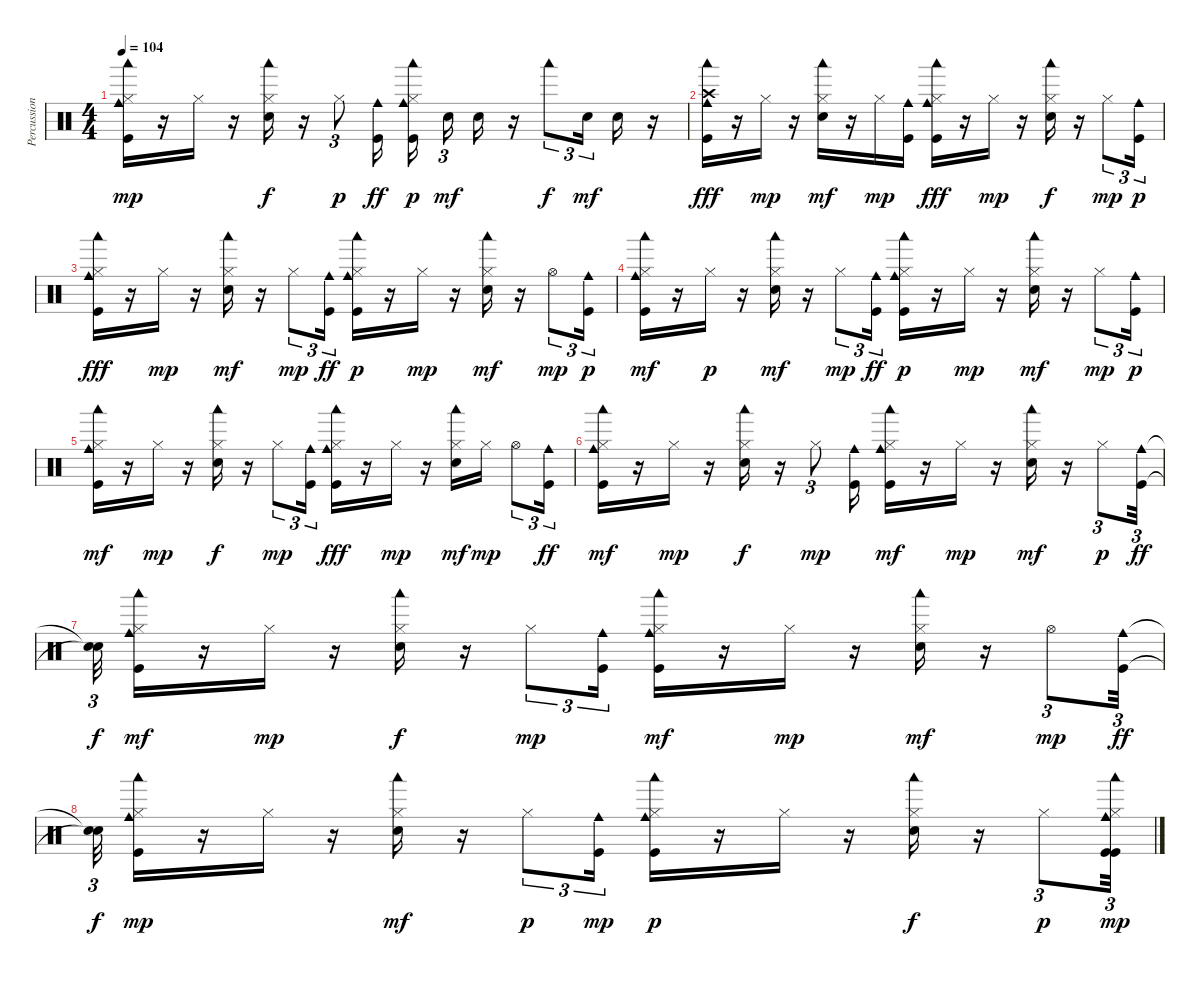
\track ("Percussions (drums + hihats)" "Percussion") {instrument percussion}
\staff {score}
\articulation defaults
\ts (4 4)
\tempo 104
\clef neutral
\ks c
("Hi-Hat (closed)" "Kick (hit)" "Woodblock low (hit)" "Cowbell medium (hit)").16{dy mp} r.16 "Hi-Hat (closed)".16 r.16 ("Woodblock low (hit)" "Electric Snare (hit)" "Hi-Hat (closed)").16{dy f} r.16 "Hi-Hat (closed)".8{tu (3 2) dy p} ("Cowbell medium (hit)" "Kick (hit)").16{dy ff} ("Kick (hit)" "Woodblock low (hit)" "Cowbell medium (hit)" "Hi-Hat (closed)").16{dy p} "Electric Snare (hit)".16{tu (3 2) dy mf} "Electric Snare (hit)".16 r.16 "Woodblock low (hit)".8{tu (3 2) dy f} "Electric Snare (hit)".16{tu (3 2) dy mf} "Electric Snare (hit)".16 r.16 |
("Cowbell medium (hit)" "Crash high (hit)" "Kick (hit)" "Woodblock low (hit)").16{dy fff} r.16 "Hi-Hat (closed)".16{dy mp} r.16 ("Woodblock low (hit)" "Hi-Hat (closed)" "Electric Snare (hit)").16{dy mf} r.16 "Hi-Hat (closed)".16{dy mp} ("Kick (hit)" "Cowbell medium (hit)").16 ("Cowbell medium (hit)" "Woodblock low (hit)" "Hi-Hat (closed)" "Kick (hit)").16{dy fff} r.16 "Hi-Hat (closed)".16{dy mp} r.16 ("Woodblock low (hit)" "Electric Snare (hit)" "Hi-Hat (closed)").16{dy f} r.16 "Hi-Hat (closed)".8{tu (3 2) dy mp} ("Kick (hit)" "Cowbell medium (hit)").16{tu (3 2) dy p} |
("Cowbell medium (hit)" "Woodblock low (hit)" "Hi-Hat (closed)" "Kick (hit)").16{dy fff} r.16 "Hi-Hat (closed)".16{dy mp} r.16 ("Hi-Hat (closed)" "Woodblock low (hit)" "Electric Snare (hit)").16{dy mf} r.16 "Hi-Hat (closed)".8{tu (3 2) dy mp} ("Cowbell medium (hit)" "Kick (hit)").16{tu (3 2) dy ff} ("Woodblock low (hit)" "Kick (hit)" "Hi-Hat (closed)" "Cowbell medium (hit)").16{dy p} r.16 "Hi-Hat (closed)".16{dy mp} r.16 ("Electric Snare (hit)" "Hi-Hat (closed)" "Woodblock low (hit)").16{dy mf} r.16 "Hi-Hat (open)".8{tu (3 2) dy mp} ("Kick (hit)" "Cowbell medium (hit)").16{tu (3 2) dy p} |
("Woodblock low (hit)" "Cowbell medium (hit)" "Kick (hit)" "Hi-Hat (closed)").16{dy mf} r.16 "Hi-Hat (closed)".16{dy p} r.16 ("Electric Snare (hit)" "Hi-Hat (closed)" "Woodblock low (hit)").16{dy mf} r.16 "Hi-Hat (closed)".8{tu (3 2) dy mp} ("Cowbell medium (hit)" "Kick (hit)").16{tu (3 2) dy ff} ("Hi-Hat (closed)" "Kick (hit)" "Cowbell medium (hit)" "Woodblock low (hit)").16{dy p} r.16 "Hi-Hat (closed)".16{dy mp} r.16 ("Hi-Hat (closed)" "Woodblock low (hit)" "Electric Snare (hit)").16{dy mf} r.16 "Hi-Hat (closed)".8{tu (3 2) dy mp} ("Kick (hit)" "Cowbell medium (hit)").16{tu (3 2) dy p} |
("Woodblock low (hit)" "Kick (hit)" "Cowbell medium (hit)" "Hi-Hat (closed)").16{dy mf} r.16 "Hi-Hat (closed)".16{dy mp} r.16 ("Woodblock low (hit)" "Electric Snare (hit)" "Hi-Hat (closed)").16{dy f} r.16 "Hi-Hat (closed)".8{tu (3 2) dy mp} ("Kick (hit)" "Cowbell medium (hit)").16{tu (3 2)} ("Cowbell medium (hit)" "Woodblock low (hit)" "Hi-Hat (closed)" "Kick (hit)").16{dy fff} r.16 "Hi-Hat (closed)".16{dy mp} r.16 ("Hi-Hat (closed)" "Woodblock low (hit)" "Electric Snare (hit)").16{dy mf} "Hi-Hat (closed)".16{dy mp} "Hi-Hat (open)".8{tu (3 2)} ("Cowbell medium (hit)" "Kick (hit)").16{tu (3 2) dy ff} |
("Cowbell medium (hit)" "Kick (hit)" "Hi-Hat (closed)" "Woodblock low (hit)").16{dy mf} r.16 "Hi-Hat (closed)".16{dy mp} r.16 ("Hi-Hat (closed)" "Electric Snare (hit)" "Woodblock low (hit)").16{dy f} r.16 "Hi-Hat (closed)".8{tu (3 2) dy mp} ("Kick (hit)" "Cowbell medium (hit)").16 ("Cowbell medium (hit)" "Kick (hit)" "Hi-Hat (closed)" "Woodblock low (hit)").16{dy mf} r.16 "Hi-Hat (closed)".16{dy mp} r.16 ("Electric Snare (hit)" "Woodblock low (hit)" "Hi-Hat (closed)").16{dy mf} r.16 "Hi-Hat (closed)".8{tu (3 2) dy p} ("Cowbell medium (hit)" "Kick (hit)").32{tu (3 2) dy ff} |
("Snare (hit)"{t} "Snare (hit)"{t}).32{tu (3 2) dy f} ("Cowbell medium (hit)" "Kick (hit)" "Hi-Hat (closed)" "Woodblock low (hit)").16{dy mf} r.16 "Hi-Hat (closed)".16{dy mp} r.16 ("Woodblock low (hit)" "Hi-Hat (closed)" "Electric Snare (hit)").16{dy f} r.16 "Hi-Hat (closed)".8{tu (3 2) dy mp} ("Kick (hit)" "Cowbell medium (hit)").16{tu (3 2)} ("Cowbell medium (hit)" "Kick (hit)" "Hi-Hat (closed)" "Woodblock low (hit)").16{dy mf} r.16 "Hi-Hat (closed)".16{dy mp} r.16 ("Woodblock low (hit)" "Electric Snare (hit)" "Hi-Hat (closed)").16{dy mf} r.16 "Hi-Hat (open)".8{tu (3 2) dy mp} ("Cowbell medium (hit)" "Kick (hit)").32{tu (3 2) dy ff} |
("Snare (hit)"{t} "Snare (hit)"{t}).32{tu (3 2) dy f} ("Woodblock low (hit)" "Hi-Hat (closed)" "Kick (hit)" "Cowbell medium (hit)").16{dy mp} r.16 "Hi-Hat (closed)".16 r.16 ("Woodblock low (hit)" "Electric Snare (hit)" "Hi-Hat (closed)").16{dy mf} r.16 "Hi-Hat (closed)".8{tu (3 2) dy p} ("Kick (hit)" "Cowbell medium (hit)").16{tu (3 2) dy mp} ("Woodblock low (hit)" "Kick (hit)" "Hi-Hat (closed)" "Cowbell medium (hit)").16{dy p} r.16 "Hi-Hat (closed)".16 r.16 ("Woodblock low (hit)" "Electric Snare (hit)" "Hi-Hat (closed)").16{dy f} r.16 "Hi-Hat (closed)".8{tu (3 2) dy p} ("Kick (hit)" "Cowbell medium (hit)" "Kick (hit)" "Hi-Hat (closed)" "Cowbell medium (hit)" "Woodblock low (hit)").32{tu (3 2) dy mp}
